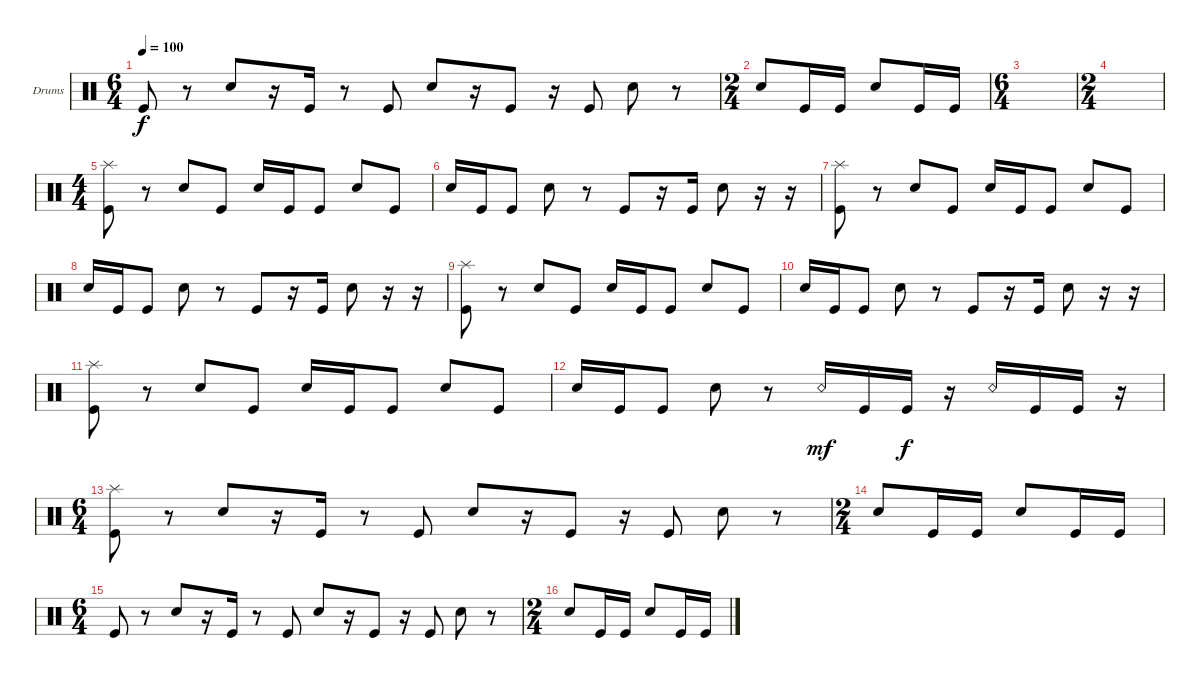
\bracketExtendMode groupsimilarinstruments
\firstSystemTrackNameOrientation horizontal
\otherSystemsTrackNameOrientation horizontal
\track ("Drumkit" "Drums") {instrument percussion}
\staff {score}
\articulation defaults
\ts (6 4)
\tempo 100
\clef neutral
\scale
0.333333
\ks c "Kick (hit)".8{dy f}
r.8 "Snare (hit) 2".8 r.16 "Kick (hit)".16 r.8 "Kick (hit)".8 "Snare (hit) 2".8 r.16 "Kick (hit)".8 r.16 "Kick (hit)".8 "Snare (hit) 2".8 r.8 |
\ts (2 4)
\scale
0.333333 "Snare (hit) 2".8 "Kick (hit)".16 "Kick (hit)".16 "Snare (hit) 2".8 "Kick (hit)".16 "Kick (hit)".16 |
\ts (6 4)
\scale
0.333333 |
\ts (2 4)
\scale
0.391473 |
\ts (4 4)
\scale
0.391473 ("Kick (hit)" "Splash (hit)").8 r.8 "Snare (hit) 2".8 "Kick (hit)".8 "Snare (hit) 2".16 "Kick (hit)".16 "Kick (hit)".8 "Snare (hit) 2".8 "Kick (hit)".8 |
\scale
0.217054 "Snare (hit) 2".16 "Kick (hit)".16 "Kick (hit)".8 "Snare (hit) 2".8 r.8 "Kick (hit)".8 r.16 "Kick (hit)".16 "Snare (hit) 2".8 r.16 r.16 |
\scale
0.333333 ("Kick (hit)" "Splash (hit)").8 r.8 "Snare (hit) 2".8 "Kick (hit)".8 "Snare (hit) 2".16 "Kick (hit)".16 "Kick (hit)".8 "Snare (hit) 2".8 "Kick (hit)".8 |
\scale
0.333333 "Snare (hit) 2".16 "Kick (hit)".16 "Kick (hit)".8 "Snare (hit) 2".8 r.8 "Kick (hit)".8 r.16 "Kick (hit)".16 "Snare (hit) 2".8 r.16 r.16 |
\scale
0.333333 ("Kick (hit)" "Splash (hit)").8 r.8 "Snare (hit) 2".8 "Kick (hit)".8 "Snare (hit) 2".16 "Kick (hit)".16 "Kick (hit)".8 "Snare (hit) 2".8 "Kick (hit)".8 |
\scale
0.333333 "Snare (hit) 2".16 "Kick (hit)".16 "Kick (hit)".8 "Snare (hit) 2".8 r.8 "Kick (hit)".8 r.16 "Kick (hit)".16 "Snare (hit) 2".8 r.16 r.16 |
\scale
0.333333 ("Kick (hit)" "Splash (hit)").8 r.8 "Snare (hit) 2".8 "Kick (hit)".8 "Snare (hit) 2".16 "Kick (hit)".16 "Kick (hit)".8 "Snare (hit) 2".8 "Kick (hit)".8 |
\scale
0.333333 "Snare (hit) 2".16 "Kick (hit)".16 "Kick (hit)".8 "Snare (hit) 2".8 r.8 "Snare (rim shot)".16{dy mf} "Kick (hit)".16 "Kick (hit)".16{dy f} r.16 "Snare (rim shot)".16 "Kick (hit)".16 "Kick (hit)".16 r.16 |
\ts (6 4)
\scale
0.333333 ("Kick (hit)" "Splash (hit)").8 r.8 "Snare (hit) 2".8 r.16 "Kick (hit)".16 r.8 "Kick (hit)".8 "Snare (hit) 2".8 r.16 "Kick (hit)".8 r.16 "Kick (hit)".8 "Snare (hit) 2".8 r.8 |
\ts (2 4)
\scale
0.333333 "Snare (hit) 2".8 "Kick (hit)".16 "Kick (hit)".16 "Snare (hit) 2".8 "Kick (hit)".16 "Kick (hit)".16 |
\ts (6 4)
\scale
0.333333 "Kick (hit)".8 r.8 "Snare (hit) 2".8 r.16 "Kick (hit)".16 r.8 "Kick (hit)".8 "Snare (hit) 2".8 r.16 "Kick (hit)".8 r.16 "Kick (hit)".8 "Snare (hit) 2".8 r.8 |
\ts (2 4)
\scale
0.333333 "Snare (hit) 2".8 "Kick (hit)".16 "Kick (hit)".16 "Snare (hit) 2".8 "Kick (hit)".16 "Kick (hit)".16
